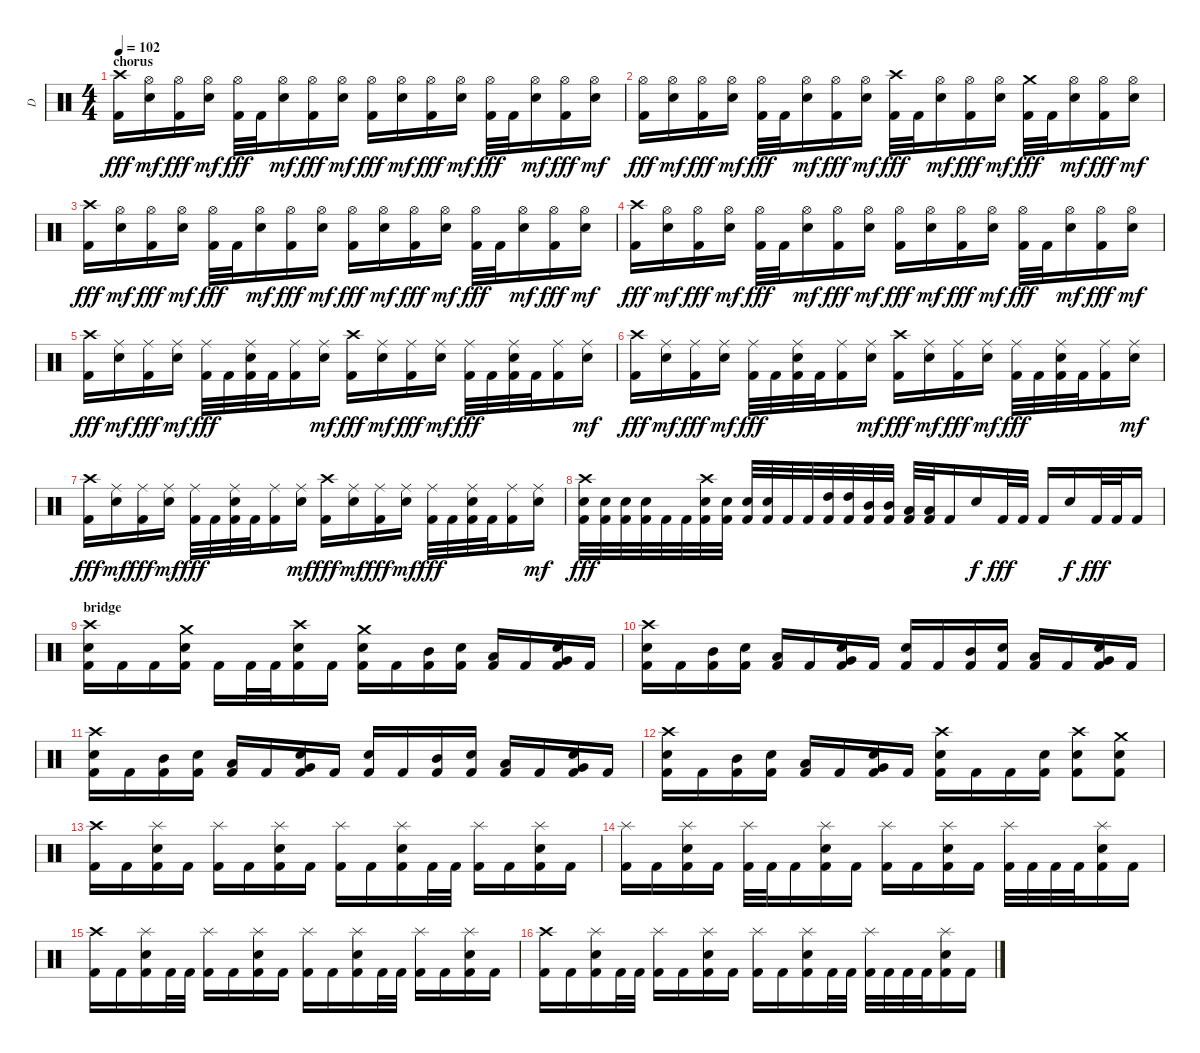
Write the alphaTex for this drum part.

\track ("D" "D") {instrument percussion}
\staff {score}
\articulation defaults
\ts (4 4)
\section ("" "chorus")
\tempo 102
\clef neutral
\ks c
("Crash high (hit)" "Kick (hit) 2").16{dy fff} ("Hi-Hat (open)" "Snare (hit) 2").16{dy mf} ("Hi-Hat (open)" "Kick (hit) 2").16{dy fff} ("Hi-Hat (open)" "Snare (hit) 2").16{dy mf} ("Hi-Hat (open)" "Kick (hit) 2").32{dy fff} "Kick (hit) 2".32 ("Hi-Hat (open)" "Snare (hit) 2").16{dy mf} ("Hi-Hat (open)" "Kick (hit) 2").16{dy fff} ("Hi-Hat (open)" "Snare (hit) 2").16{dy mf} ("Hi-Hat (open)" "Kick (hit) 2").16{dy fff} ("Hi-Hat (open)" "Snare (hit) 2").16{dy mf} ("Hi-Hat (open)" "Kick (hit) 2").16{dy fff} ("Hi-Hat (open)" "Snare (hit) 2").16{dy mf} ("Hi-Hat (open)" "Kick (hit) 2").32{dy fff} "Kick (hit) 2".32 ("Hi-Hat (open)" "Snare (hit) 2").16{dy mf} ("Hi-Hat (open)" "Kick (hit) 2").16{dy fff} ("Hi-Hat (open)" "Snare (hit) 2").16{dy mf} |
("Hi-Hat (open)" "Kick (hit) 2").16{dy fff} ("Hi-Hat (open)" "Snare (hit) 2").16{dy mf} ("Hi-Hat (open)" "Kick (hit) 2").16{dy fff} ("Hi-Hat (open)" "Snare (hit) 2").16{dy mf} ("Hi-Hat (open)" "Kick (hit) 2").32{dy fff} "Kick (hit) 2".32 ("Hi-Hat (open)" "Snare (hit) 2").16{dy mf} ("Hi-Hat (open)" "Kick (hit) 2").16{dy fff} ("Hi-Hat (open)" "Snare (hit) 2").16{dy mf} ("Crash high (hit)" "Kick (hit) 2").32{dy fff} "Kick (hit) 2".32 ("Hi-Hat (open)" "Snare (hit) 2").16{dy mf} ("Hi-Hat (open)" "Kick (hit) 2").16{dy fff} ("Hi-Hat (open)" "Snare (hit) 2").16{dy mf} ("Crash medium (hit)" "Kick (hit) 2").32{dy fff} "Kick (hit) 2".32 ("Hi-Hat (open)" "Snare (hit) 2").16{dy mf} ("Hi-Hat (open)" "Kick (hit) 2").16{dy fff} ("Hi-Hat (open)" "Snare (hit) 2").16{dy mf} |
("Crash high (hit)" "Kick (hit) 2").16{dy fff} ("Hi-Hat (open)" "Snare (hit) 2").16{dy mf} ("Hi-Hat (open)" "Kick (hit) 2").16{dy fff} ("Hi-Hat (open)" "Snare (hit) 2").16{dy mf} ("Hi-Hat (open)" "Kick (hit) 2").32{dy fff} "Kick (hit) 2".32 ("Hi-Hat (open)" "Snare (hit) 2").16{dy mf} ("Hi-Hat (open)" "Kick (hit) 2").16{dy fff} ("Hi-Hat (open)" "Snare (hit) 2").16{dy mf} ("Hi-Hat (open)" "Kick (hit) 2").16{dy fff} ("Hi-Hat (open)" "Snare (hit) 2").16{dy mf} ("Hi-Hat (open)" "Kick (hit) 2").16{dy fff} ("Hi-Hat (open)" "Snare (hit) 2").16{dy mf} ("Hi-Hat (open)" "Kick (hit) 2").32{dy fff} "Kick (hit) 2".32 ("Hi-Hat (open)" "Snare (hit) 2").16{dy mf} ("Hi-Hat (open)" "Kick (hit) 2").16{dy fff} ("Hi-Hat (open)" "Snare (hit) 2").16{dy mf} |
("Crash high (hit)" "Kick (hit) 2").16{dy fff} ("Hi-Hat (open)" "Snare (hit) 2").16{dy mf} ("Hi-Hat (open)" "Kick (hit) 2").16{dy fff} ("Hi-Hat (open)" "Snare (hit) 2").16{dy mf} ("Hi-Hat (open)" "Kick (hit) 2").32{dy fff} "Kick (hit) 2".32 ("Hi-Hat (open)" "Snare (hit) 2").16{dy mf} ("Hi-Hat (open)" "Kick (hit) 2").16{dy fff} ("Hi-Hat (open)" "Snare (hit) 2").16{dy mf} ("Hi-Hat (open)" "Kick (hit) 2").16{dy fff} ("Hi-Hat (open)" "Snare (hit) 2").16{dy mf} ("Hi-Hat (open)" "Kick (hit) 2").16{dy fff} ("Hi-Hat (open)" "Snare (hit) 2").16{dy mf} ("Hi-Hat (open)" "Kick (hit) 2").32{dy fff} "Kick (hit) 2".32 ("Hi-Hat (open)" "Snare (hit) 2").16{dy mf} ("Hi-Hat (open)" "Kick (hit) 2").16{dy fff} ("Hi-Hat (open)" "Snare (hit) 2").16{dy mf} |
("Crash high (hit)" "Kick (hit) 2").16{dy fff} ("Ride (middle)" "Snare (hit) 2").16{dy mf} ("Ride (middle)" "Kick (hit) 2").16{dy fff} ("Ride (middle)" "Snare (hit) 2").16{dy mf} ("Ride (middle)" "Kick (hit) 2").32{dy fff} "Kick (hit) 2".32 ("Ride (middle)" "Snare (hit) 2" "Kick (hit) 2").32 "Kick (hit) 2".32 ("Ride (middle)" "Kick (hit) 2").16 ("Ride (middle)" "Snare (hit) 2").16{dy mf} ("Crash high (hit)" "Kick (hit) 2").16{dy fff} ("Ride (middle)" "Snare (hit) 2").16{dy mf} ("Ride (middle)" "Kick (hit) 2").16{dy fff} ("Ride (middle)" "Snare (hit) 2").16{dy mf} ("Ride (middle)" "Kick (hit) 2").32{dy fff} "Kick (hit) 2".32 ("Ride (middle)" "Snare (hit) 2" "Kick (hit) 2").32 "Kick (hit) 2".32 ("Ride (middle)" "Kick (hit) 2").16 ("Ride (middle)" "Snare (hit) 2").16{dy mf} |
("Crash high (hit)" "Kick (hit) 2").16{dy fff} ("Ride (middle)" "Snare (hit) 2").16{dy mf} ("Ride (middle)" "Kick (hit) 2").16{dy fff} ("Ride (middle)" "Snare (hit) 2").16{dy mf} ("Ride (middle)" "Kick (hit) 2").32{dy fff} "Kick (hit) 2".32 ("Ride (middle)" "Snare (hit) 2" "Kick (hit) 2").32 "Kick (hit) 2".32 ("Ride (middle)" "Kick (hit) 2").16 ("Ride (middle)" "Snare (hit) 2").16{dy mf} ("Crash high (hit)" "Kick (hit) 2").16{dy fff} ("Ride (middle)" "Snare (hit) 2").16{dy mf} ("Ride (middle)" "Kick (hit) 2").16{dy fff} ("Ride (middle)" "Snare (hit) 2").16{dy mf} ("Ride (middle)" "Kick (hit) 2").32{dy fff} "Kick (hit) 2".32 ("Ride (middle)" "Snare (hit) 2" "Kick (hit) 2").32 "Kick (hit) 2".32 ("Ride (middle)" "Kick (hit) 2").16 ("Ride (middle)" "Snare (hit) 2").16{dy mf} |
("Crash high (hit)" "Kick (hit) 2").16{dy fff} ("Ride (middle)" "Snare (hit) 2").16{dy mf} ("Ride (middle)" "Kick (hit) 2").16{dy fff} ("Ride (middle)" "Snare (hit) 2").16{dy mf} ("Ride (middle)" "Kick (hit) 2").32{dy fff} "Kick (hit) 2".32 ("Ride (middle)" "Snare (hit) 2" "Kick (hit) 2").32 "Kick (hit) 2".32 ("Ride (middle)" "Kick (hit) 2").16 ("Ride (middle)" "Snare (hit) 2").16{dy mf} ("Crash high (hit)" "Kick (hit) 2").16{dy fff} ("Ride (middle)" "Snare (hit) 2").16{dy mf} ("Ride (middle)" "Kick (hit) 2").16{dy fff} ("Ride (middle)" "Snare (hit) 2").16{dy mf} ("Ride (middle)" "Kick (hit) 2").32{dy fff} "Kick (hit) 2".32 ("Ride (middle)" "Snare (hit) 2" "Kick (hit) 2").32 "Kick (hit) 2".32 ("Ride (middle)" "Kick (hit) 2").16 ("Ride (middle)" "Snare (hit) 2").16{dy mf} |
("Crash high (hit)" "Snare (hit) 2" "Kick (hit) 2").32{dy fff} ("Snare (hit) 2" "Kick (hit) 2").32 ("Snare (hit) 2" "Kick (hit) 2").32 ("Snare (hit) 2" "Kick (hit) 2").32 "Kick (hit) 2".32 "Kick (hit) 2".32 ("Crash high (hit)" "Snare (hit) 2" "Kick (hit) 2").32 ("Snare (hit) 2" "Kick (hit) 2").32 ("Snare (hit) 2" "Kick (hit) 2").32 ("Snare (hit) 2" "Kick (hit) 2").32 "Kick (hit) 2".32 "Kick (hit) 2".32 ("High Tom (hit)" "Kick (hit) 2").32 ("High Tom (hit)" "Kick (hit) 2").32 ("Mid Tom (hit)" "Kick (hit) 2").32 ("Mid Tom (hit)" "Kick (hit) 2").32 ("Low Tom (hit)" "Kick (hit) 2").32 ("Low Tom (hit)" "Kick (hit) 2").32 "Kick (hit) 2".16 "Snare (hit) 2".16{dy f} "Kick (hit) 2".32{dy fff} "Kick (hit) 2".32 "Kick (hit) 2".16 "Snare (hit) 2".16{dy f} "Kick (hit) 2".32{dy fff} "Kick (hit) 2".32 "Kick (hit) 2".16 |
\section ("" "bridge")
("Crash high (hit)" "Snare (hit) 2" "Kick (hit) 2").16 "Kick (hit) 2".16 "Kick (hit) 2".16 ("Crash medium (hit)" "Snare (hit) 2" "Kick (hit) 2").16 "Kick (hit) 2".16 "Kick (hit) 2".32 "Kick (hit) 2".32 ("Crash high (hit)" "Snare (hit) 2" "Kick (hit) 2").16 "Kick (hit) 2".16 ("Crash medium (hit)" "Snare (hit) 2" "Kick (hit) 2").16 "Kick (hit) 2".16 ("Mid Tom (hit)" "Kick (hit) 2").16 ("Snare (hit) 2" "Kick (hit) 2").16 ("Low Tom (hit)" "Kick (hit) 2").16 "Kick (hit) 2".16 ("Very Low Tom (hit)" "Snare (hit) 2" "Kick (hit) 2").16 "Kick (hit) 2".16 |
("Crash high (hit)" "Snare (hit) 2" "Kick (hit) 2").16 "Kick (hit) 2".16 ("Mid Tom (hit)" "Kick (hit) 2").16 ("Snare (hit) 2" "Kick (hit) 2").16 ("Low Tom (hit)" "Kick (hit) 2").16 "Kick (hit) 2".16 ("Very Low Tom (hit)" "Snare (hit) 2" "Kick (hit) 2").16 "Kick (hit) 2".16 ("Snare (hit) 2" "Kick (hit) 2").16 "Kick (hit) 2".16 ("Mid Tom (hit)" "Kick (hit) 2").16 ("Snare (hit) 2" "Kick (hit) 2").16 ("Low Tom (hit)" "Kick (hit) 2").16 "Kick (hit) 2".16 ("Very Low Tom (hit)" "Snare (hit) 2" "Kick (hit) 2").16 "Kick (hit) 2".16 |
("Crash high (hit)" "Snare (hit) 2" "Kick (hit) 2").16 "Kick (hit) 2".16 ("Mid Tom (hit)" "Kick (hit) 2").16 ("Snare (hit) 2" "Kick (hit) 2").16 ("Low Tom (hit)" "Kick (hit) 2").16 "Kick (hit) 2".16 ("Very Low Tom (hit)" "Snare (hit) 2" "Kick (hit) 2").16 "Kick (hit) 2".16 ("Snare (hit) 2" "Kick (hit) 2").16 "Kick (hit) 2".16 ("Mid Tom (hit)" "Kick (hit) 2").16 ("Snare (hit) 2" "Kick (hit) 2").16 ("Low Tom (hit)" "Kick (hit) 2").16 "Kick (hit) 2".16 ("Very Low Tom (hit)" "Snare (hit) 2" "Kick (hit) 2").16 "Kick (hit) 2".16 |
("Crash high (hit)" "Snare (hit) 2" "Kick (hit) 2").16 "Kick (hit) 2".16 ("Mid Tom (hit)" "Kick (hit) 2").16 ("Snare (hit) 2" "Kick (hit) 2").16 ("Low Tom (hit)" "Kick (hit) 2").16 "Kick (hit) 2".16 ("Very Low Tom (hit)" "Snare (hit) 2" "Kick (hit) 2").16 "Kick (hit) 2".16 ("Crash high (hit)" "Snare (hit) 2" "Kick (hit) 2").16 "Kick (hit) 2".16 "Kick (hit) 2".16 ("Snare (hit) 2" "Kick (hit) 2").16 ("Crash high (hit)" "Snare (hit) 2" "Kick (hit) 2").8 ("Crash medium (hit)" "Snare (hit) 2" "Kick (hit) 2").8 |
("Crash high (hit)" "Kick (hit) 2").16 "Kick (hit) 2".16 ("Splash (hit)" "Snare (hit) 2" "Kick (hit) 2").16 "Kick (hit) 2".16 ("Splash (hit)" "Kick (hit) 2").16 "Kick (hit) 2".16 ("Splash (hit)" "Snare (hit) 2" "Kick (hit) 2").16 "Kick (hit) 2".16 ("Splash (hit)" "Kick (hit) 2").16 "Kick (hit) 2".16 ("Splash (hit)" "Snare (hit) 2" "Kick (hit) 2").16 "Kick (hit) 2".32 "Kick (hit) 2".32 ("Splash (hit)" "Kick (hit) 2").16 "Kick (hit) 2".16 ("Splash (hit)" "Snare (hit) 2" "Kick (hit) 2").16 "Kick (hit) 2".16 |
("Splash (hit)" "Kick (hit) 2").16 "Kick (hit) 2".16 ("Splash (hit)" "Snare (hit) 2" "Kick (hit) 2").16 "Kick (hit) 2".16 ("Splash (hit)" "Kick (hit) 2").32 "Kick (hit) 2".32 "Kick (hit) 2".16 ("Splash (hit)" "Snare (hit) 2" "Kick (hit) 2").16 "Kick (hit) 2".16 ("Splash (hit)" "Kick (hit) 2").16 "Kick (hit) 2".16 ("Splash (hit)" "Snare (hit) 2" "Kick (hit) 2").16 "Kick (hit) 2".16 ("Splash (hit)" "Kick (hit) 2").32 "Kick (hit) 2".32 "Kick (hit) 2".32 "Kick (hit) 2".32 ("Splash (hit)" "Snare (hit) 2" "Kick (hit) 2").16 "Kick (hit) 2".16 |
("Crash high (hit)" "Kick (hit) 2").16 "Kick (hit) 2".16 ("Splash (hit)" "Snare (hit) 2" "Kick (hit) 2").16 "Kick (hit) 2".32 "Kick (hit) 2".32 ("Splash (hit)" "Kick (hit) 2").16 "Kick (hit) 2".16 ("Splash (hit)" "Snare (hit) 2" "Kick (hit) 2").16 "Kick (hit) 2".16 ("Splash (hit)" "Kick (hit) 2").16 "Kick (hit) 2".16 ("Splash (hit)" "Snare (hit) 2" "Kick (hit) 2").16 "Kick (hit) 2".32 "Kick (hit) 2".32 ("Splash (hit)" "Kick (hit) 2").16 "Kick (hit) 2".16 ("Splash (hit)" "Snare (hit) 2" "Kick (hit) 2").16 "Kick (hit) 2".16 |
("Crash high (hit)" "Kick (hit) 2").16 "Kick (hit) 2".16 ("Splash (hit)" "Snare (hit) 2" "Kick (hit) 2").16 "Kick (hit) 2".32 "Kick (hit) 2".32 ("Splash (hit)" "Kick (hit) 2").16 "Kick (hit) 2".16 ("Splash (hit)" "Snare (hit) 2" "Kick (hit) 2").16 "Kick (hit) 2".16 ("Splash (hit)" "Kick (hit) 2").16 "Kick (hit) 2".16 ("Splash (hit)" "Snare (hit) 2" "Kick (hit) 2").16 "Kick (hit) 2".32 "Kick (hit) 2".32 ("Splash (hit)" "Kick (hit) 2").32 "Kick (hit) 2".32 "Kick (hit) 2".32 "Kick (hit) 2".32 ("Splash (hit)" "Snare (hit) 2" "Kick (hit) 2").16 "Kick (hit) 2".16
